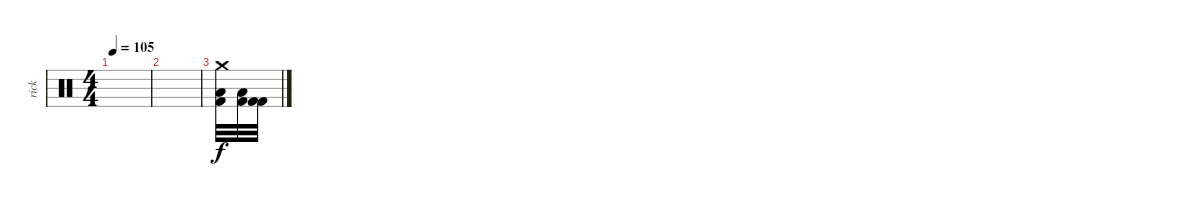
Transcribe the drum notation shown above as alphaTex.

\track ("rick" "rick") {instrument percussion}
\staff {score}
\articulation defaults
\ts (4 4)
\tempo 105
\clef neutral
\ks c
|
|
("Crash medium (hit)" "Low Tom (hit)" "Kick (hit) 2").32 ("Low Tom (hit)" "Kick (hit) 2").32 ("Kick (hit) 2" "Kick (hit) 2").32
